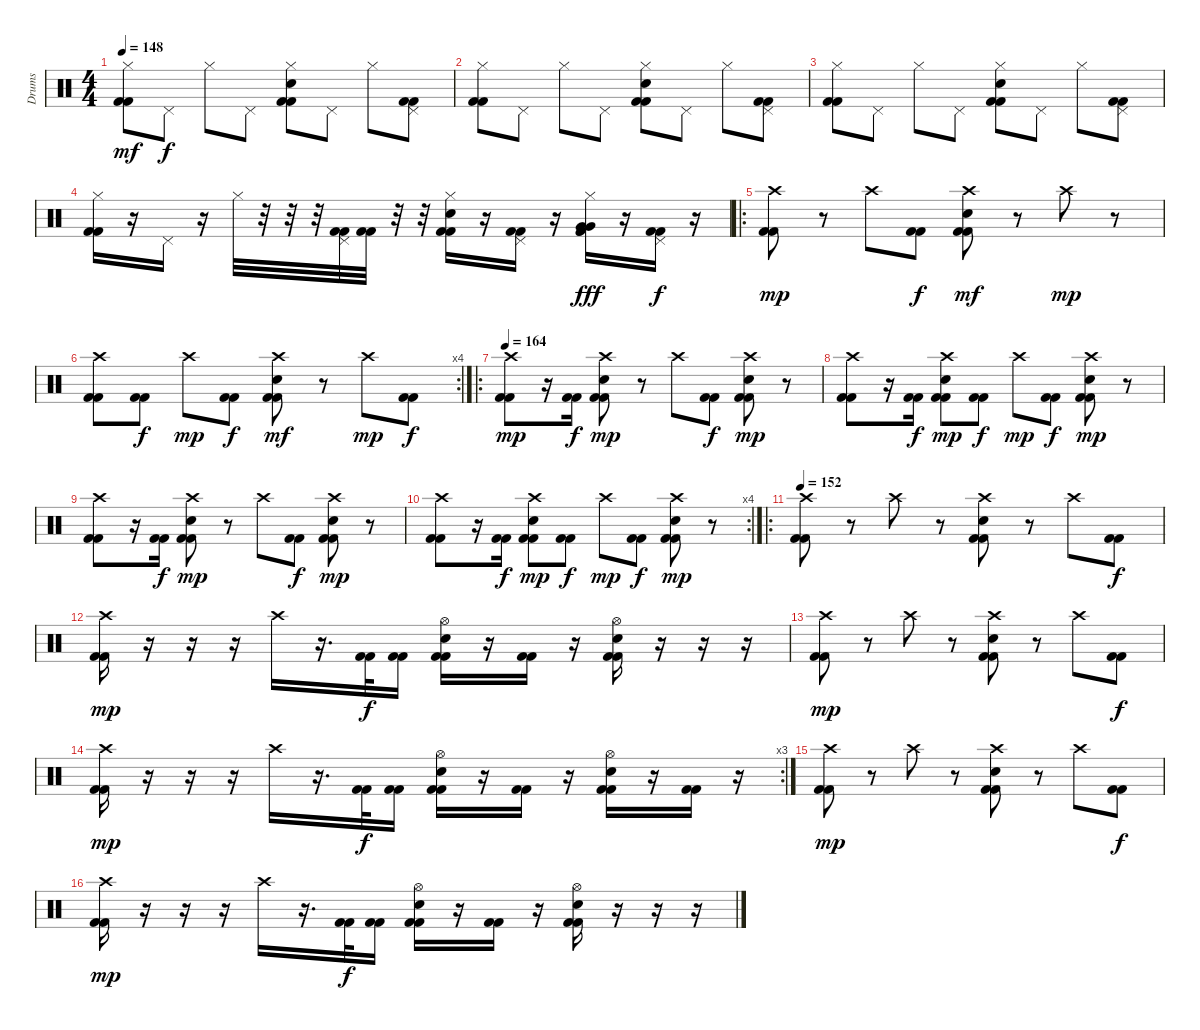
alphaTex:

\track ("Drums" "Drums") {instrument percussion}
\staff {score}
\articulation defaults
\ts (4 4)
\tempo 148
\clef neutral
\ks c
("Hi-Hat (closed)" "Kick (hit) 2" "Kick (hit) 2").8{dy mf} "Pedal Hi-Hat (hit)".8{dy f} "Hi-Hat (closed)".8 "Pedal Hi-Hat (hit)".8 ("Hi-Hat (closed)" "Snare (hit) 2" "Kick (hit) 2" "Kick (hit) 2").8 "Pedal Hi-Hat (hit)".8 "Hi-Hat (closed)".8 ("Pedal Hi-Hat (hit)" "Kick (hit) 2" "Kick (hit) 2").8 |
("Hi-Hat (closed)" "Kick (hit) 2" "Kick (hit) 2").8 "Pedal Hi-Hat (hit)".8 "Hi-Hat (closed)".8 "Pedal Hi-Hat (hit)".8 ("Hi-Hat (closed)" "Snare (hit) 2" "Kick (hit) 2" "Kick (hit) 2").8 "Pedal Hi-Hat (hit)".8 "Hi-Hat (closed)".8 ("Pedal Hi-Hat (hit)" "Kick (hit) 2" "Kick (hit) 2").8 |
("Hi-Hat (closed)" "Kick (hit) 2" "Kick (hit) 2").8 "Pedal Hi-Hat (hit)".8 "Hi-Hat (closed)".8 "Pedal Hi-Hat (hit)".8 ("Hi-Hat (closed)" "Snare (hit) 2" "Kick (hit) 2" "Kick (hit) 2").8 "Pedal Hi-Hat (hit)".8 "Hi-Hat (closed)".8 ("Pedal Hi-Hat (hit)" "Kick (hit) 2" "Kick (hit) 2").8 |
("Hi-Hat (closed)" "Kick (hit) 2" "Kick (hit) 2").16 r.16 "Pedal Hi-Hat (hit)".16 r.16 "Hi-Hat (closed)".32 r.32 r.32 r.32 ("Pedal Hi-Hat (hit)" "Kick (hit) 2" "Kick (hit) 2").32 ("Kick (hit) 2" "Kick (hit) 2").32 r.32 r.32 ("Hi-Hat (closed)" "Snare (hit) 2" "Kick (hit) 2" "Kick (hit) 2").16 r.16 ("Pedal Hi-Hat (hit)" "Kick (hit) 2" "Kick (hit) 2").16 r.16 ("Hi-Hat (closed)" "Very Low Tom (hit)" "Very Low Tom (hit)" "Kick (hit) 2" "Kick (hit) 2").16{dy fff} r.16 ("Pedal Hi-Hat (hit)" "Kick (hit) 2" "Kick (hit) 2").16{dy f} r.16 |
\ro
("Crash high (hit)" "Kick (hit) 2" "Kick (hit) 2").8{dy mp} r.8 "Crash high (hit)".8 ("Kick (hit) 2" "Kick (hit) 2").8{dy f} ("Crash high (hit)" "Snare (hit) 2" "Kick (hit) 2" "Kick (hit) 2").8{dy mf} r.8 "Crash high (hit)".8{dy mp} r.8 |
\rc 4
("Crash high (hit)" "Kick (hit) 2" "Kick (hit) 2").8 ("Kick (hit) 2" "Kick (hit) 2").8{dy f} "Crash high (hit)".8{dy mp} ("Kick (hit) 2" "Kick (hit) 2").8{dy f} ("Crash high (hit)" "Snare (hit) 2" "Kick (hit) 2" "Kick (hit) 2").8{dy mf} r.8 "Crash high (hit)".8{dy mp} ("Kick (hit) 2" "Kick (hit) 2").8{dy f} |
\ro
\tempo 164
("Crash high (hit)" "Kick (hit) 2" "Kick (hit) 2").8{dy mp} r.16 ("Kick (hit) 2" "Kick (hit) 2").16{dy f} ("Crash high (hit)" "Snare (hit) 2" "Kick (hit) 2" "Kick (hit) 2").8{dy mp} r.8 "Crash high (hit)".8 ("Kick (hit) 2" "Kick (hit) 2").8{dy f} ("Crash high (hit)" "Snare (hit) 2" "Kick (hit) 2" "Kick (hit) 2").8{dy mp} r.8 |
("Crash high (hit)" "Kick (hit) 2" "Kick (hit) 2").8 r.16 ("Kick (hit) 2" "Kick (hit) 2").16{dy f} ("Crash high (hit)" "Snare (hit) 2" "Kick (hit) 2" "Kick (hit) 2").8{dy mp} ("Kick (hit) 2" "Kick (hit) 2").8{dy f} "Crash high (hit)".8{dy mp} ("Kick (hit) 2" "Kick (hit) 2").8{dy f} ("Crash high (hit)" "Snare (hit) 2" "Kick (hit) 2" "Kick (hit) 2").8{dy mp} r.8 |
("Crash high (hit)" "Kick (hit) 2" "Kick (hit) 2").8 r.16 ("Kick (hit) 2" "Kick (hit) 2").16{dy f} ("Crash high (hit)" "Snare (hit) 2" "Kick (hit) 2" "Kick (hit) 2").8{dy mp} r.8 "Crash high (hit)".8 ("Kick (hit) 2" "Kick (hit) 2").8{dy f} ("Crash high (hit)" "Snare (hit) 2" "Kick (hit) 2" "Kick (hit) 2").8{dy mp} r.8 |
\rc 4
("Crash high (hit)" "Kick (hit) 2" "Kick (hit) 2").8 r.16 ("Kick (hit) 2" "Kick (hit) 2").16{dy f} ("Crash high (hit)" "Snare (hit) 2" "Kick (hit) 2" "Kick (hit) 2").8{dy mp} ("Kick (hit) 2" "Kick (hit) 2").8{dy f} "Crash high (hit)".8{dy mp} ("Kick (hit) 2" "Kick (hit) 2").8{dy f} ("Crash high (hit)" "Snare (hit) 2" "Kick (hit) 2" "Kick (hit) 2").8{dy mp} r.8 |
\ro
\tempo 152
("Crash high (hit)" "Kick (hit) 2" "Kick (hit) 2").8 r.8 "Crash high (hit)".8 r.8 ("Crash high (hit)" "Snare (hit) 2" "Kick (hit) 2" "Kick (hit) 2").8 r.8 "Crash high (hit)".8 ("Kick (hit) 2" "Kick (hit) 2").8{dy f} |
("Crash high (hit)" "Kick (hit) 2" "Kick (hit) 2").16{dy mp} r.16 r.16 r.16 "Crash high (hit)".16 r.16{d} ("Kick (hit) 2" "Kick (hit) 2").32{dy f} ("Kick (hit) 2" "Kick (hit) 2").16 ("Hi-Hat (open)" "Snare (hit) 2" "Kick (hit) 2" "Kick (hit) 2").16 r.16 ("Kick (hit) 2" "Kick (hit) 2").16 r.16 ("Hi-Hat (open)" "Snare (hit) 2" "Kick (hit) 2" "Kick (hit) 2").16 r.16 r.16 r.16 |
("Crash high (hit)" "Kick (hit) 2" "Kick (hit) 2").8{dy mp} r.8 "Crash high (hit)".8 r.8 ("Crash high (hit)" "Snare (hit) 2" "Kick (hit) 2" "Kick (hit) 2").8 r.8 "Crash high (hit)".8 ("Kick (hit) 2" "Kick (hit) 2").8{dy f} |
\rc 3
("Crash high (hit)" "Kick (hit) 2" "Kick (hit) 2").16{dy mp} r.16 r.16 r.16 "Crash high (hit)".16 r.16{d} ("Kick (hit) 2" "Kick (hit) 2").32{dy f} ("Kick (hit) 2" "Kick (hit) 2").16 ("Hi-Hat (open)" "Snare (hit) 2" "Kick (hit) 2" "Kick (hit) 2").16 r.16 ("Kick (hit) 2" "Kick (hit) 2").16 r.16 ("Hi-Hat (open)" "Snare (hit) 2" "Kick (hit) 2" "Kick (hit) 2").16 r.16 ("Kick (hit) 2" "Kick (hit) 2").16 r.16 |
("Crash high (hit)" "Kick (hit) 2" "Kick (hit) 2").8{dy mp} r.8 "Crash high (hit)".8 r.8 ("Crash high (hit)" "Snare (hit) 2" "Kick (hit) 2" "Kick (hit) 2").8 r.8 "Crash high (hit)".8 ("Kick (hit) 2" "Kick (hit) 2").8{dy f} |
("Crash high (hit)" "Kick (hit) 2" "Kick (hit) 2").16{dy mp} r.16 r.16 r.16 "Crash high (hit)".16 r.16{d} ("Kick (hit) 2" "Kick (hit) 2").32{dy f} ("Kick (hit) 2" "Kick (hit) 2").16 ("Hi-Hat (open)" "Snare (hit) 2" "Kick (hit) 2" "Kick (hit) 2").16 r.16 ("Kick (hit) 2" "Kick (hit) 2").16 r.16 ("Hi-Hat (open)" "Snare (hit) 2" "Kick (hit) 2" "Kick (hit) 2").16 r.16 r.16 r.16
